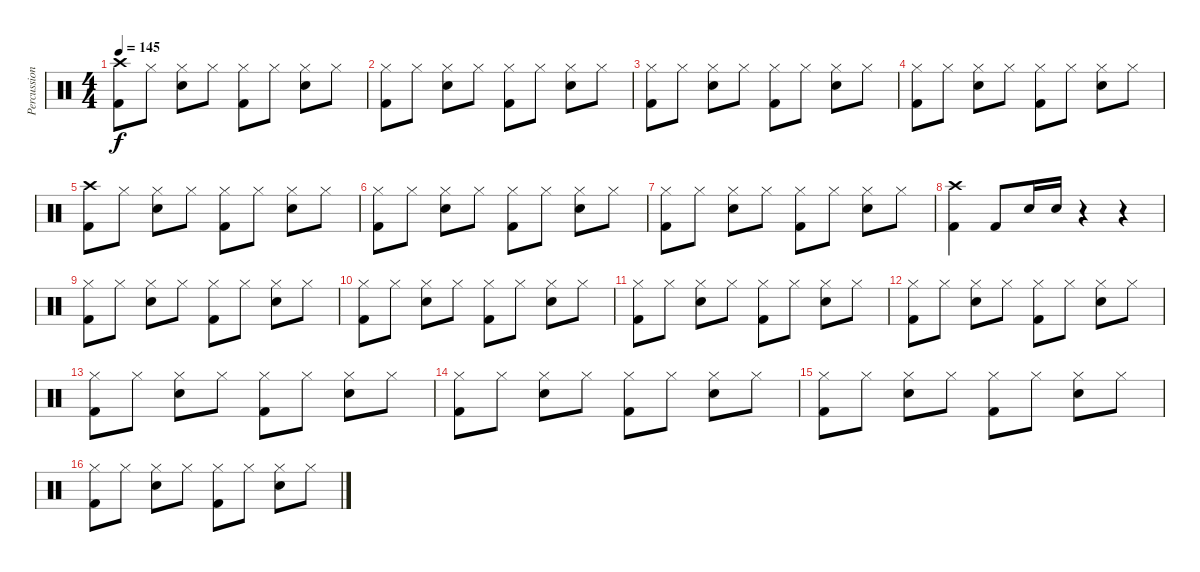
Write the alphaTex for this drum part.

\track ("Percussion" "Percussion") {instrument percussion}
\staff {score}
\articulation defaults
\ts (4 4)
\tempo 145
\clef neutral
\ks c
("Crash high (hit)" "Kick (hit) 2").8{dy f} "Hi-Hat (closed)".8 ("Hi-Hat (closed)" "Snare (hit) 2").8 "Hi-Hat (closed)".8 ("Hi-Hat (closed)" "Kick (hit) 2").8 "Hi-Hat (closed)".8 ("Hi-Hat (closed)" "Snare (hit) 2").8 "Hi-Hat (closed)".8 |
("Hi-Hat (closed)" "Kick (hit) 2").8 "Hi-Hat (closed)".8 ("Hi-Hat (closed)" "Snare (hit) 2").8 "Hi-Hat (closed)".8 ("Hi-Hat (closed)" "Kick (hit) 2").8 "Hi-Hat (closed)".8 ("Hi-Hat (closed)" "Snare (hit) 2").8 "Hi-Hat (closed)".8 |
("Hi-Hat (closed)" "Kick (hit) 2").8 "Hi-Hat (closed)".8 ("Hi-Hat (closed)" "Snare (hit) 2").8 "Hi-Hat (closed)".8 ("Hi-Hat (closed)" "Kick (hit) 2").8 "Hi-Hat (closed)".8 ("Hi-Hat (closed)" "Snare (hit) 2").8 "Hi-Hat (closed)".8 |
("Hi-Hat (closed)" "Kick (hit) 2").8 "Hi-Hat (closed)".8 ("Hi-Hat (closed)" "Snare (hit) 2").8 "Hi-Hat (closed)".8 ("Hi-Hat (closed)" "Kick (hit) 2").8 "Hi-Hat (closed)".8 ("Hi-Hat (closed)" "Snare (hit) 2").8 "Hi-Hat (closed)".8 |
("Crash high (hit)" "Kick (hit) 2").8 "Hi-Hat (closed)".8 ("Hi-Hat (closed)" "Snare (hit) 2").8 "Hi-Hat (closed)".8 ("Hi-Hat (closed)" "Kick (hit) 2").8 "Hi-Hat (closed)".8 ("Hi-Hat (closed)" "Snare (hit) 2").8 "Hi-Hat (closed)".8 |
("Hi-Hat (closed)" "Kick (hit) 2").8 "Hi-Hat (closed)".8 ("Hi-Hat (closed)" "Snare (hit) 2").8 "Hi-Hat (closed)".8 ("Hi-Hat (closed)" "Kick (hit) 2").8 "Hi-Hat (closed)".8 ("Hi-Hat (closed)" "Snare (hit) 2").8 "Hi-Hat (closed)".8 |
("Hi-Hat (closed)" "Kick (hit) 2").8 "Hi-Hat (closed)".8 ("Hi-Hat (closed)" "Snare (hit) 2").8 "Hi-Hat (closed)".8 ("Hi-Hat (closed)" "Kick (hit) 2").8 "Hi-Hat (closed)".8 ("Hi-Hat (closed)" "Snare (hit) 2").8 "Hi-Hat (closed)".8 |
("Crash high (hit)" "Kick (hit) 2").4 "Kick (hit) 2".8 "Electric Snare (hit)".16 "Electric Snare (hit)".16 r.4 r.4 |
("Hi-Hat (closed)" "Kick (hit) 2").8 "Hi-Hat (closed)".8 ("Hi-Hat (closed)" "Snare (hit) 2").8 "Hi-Hat (closed)".8 ("Hi-Hat (closed)" "Kick (hit) 2").8 "Hi-Hat (closed)".8 ("Hi-Hat (closed)" "Snare (hit) 2").8 "Hi-Hat (closed)".8 |
("Hi-Hat (closed)" "Kick (hit) 2").8 "Hi-Hat (closed)".8 ("Hi-Hat (closed)" "Snare (hit) 2").8 "Hi-Hat (closed)".8 ("Hi-Hat (closed)" "Kick (hit) 2").8 "Hi-Hat (closed)".8 ("Hi-Hat (closed)" "Snare (hit) 2").8 "Hi-Hat (closed)".8 |
("Hi-Hat (closed)" "Kick (hit) 2").8 "Hi-Hat (closed)".8 ("Hi-Hat (closed)" "Snare (hit) 2").8 "Hi-Hat (closed)".8 ("Hi-Hat (closed)" "Kick (hit) 2").8 "Hi-Hat (closed)".8 ("Hi-Hat (closed)" "Snare (hit) 2").8 "Hi-Hat (closed)".8 |
("Hi-Hat (closed)" "Kick (hit) 2").8 "Hi-Hat (closed)".8 ("Hi-Hat (closed)" "Snare (hit) 2").8 "Hi-Hat (closed)".8 ("Hi-Hat (closed)" "Kick (hit) 2").8 "Hi-Hat (closed)".8 ("Hi-Hat (closed)" "Snare (hit) 2").8 "Hi-Hat (closed)".8 |
("Hi-Hat (closed)" "Kick (hit) 2").8 "Hi-Hat (closed)".8 ("Hi-Hat (closed)" "Snare (hit) 2").8 "Hi-Hat (closed)".8 ("Hi-Hat (closed)" "Kick (hit) 2").8 "Hi-Hat (closed)".8 ("Hi-Hat (closed)" "Snare (hit) 2").8 "Hi-Hat (closed)".8 |
("Hi-Hat (closed)" "Kick (hit) 2").8 "Hi-Hat (closed)".8 ("Hi-Hat (closed)" "Snare (hit) 2").8 "Hi-Hat (closed)".8 ("Hi-Hat (closed)" "Kick (hit) 2").8 "Hi-Hat (closed)".8 ("Hi-Hat (closed)" "Snare (hit) 2").8 "Hi-Hat (closed)".8 |
("Hi-Hat (closed)" "Kick (hit) 2").8 "Hi-Hat (closed)".8 ("Hi-Hat (closed)" "Snare (hit) 2").8 "Hi-Hat (closed)".8 ("Hi-Hat (closed)" "Kick (hit) 2").8 "Hi-Hat (closed)".8 ("Hi-Hat (closed)" "Snare (hit) 2").8 "Hi-Hat (closed)".8 |
("Hi-Hat (closed)" "Kick (hit) 2").8 "Hi-Hat (closed)".8 ("Hi-Hat (closed)" "Snare (hit) 2").8 "Hi-Hat (closed)".8 ("Hi-Hat (closed)" "Kick (hit) 2").8 "Hi-Hat (closed)".8 ("Hi-Hat (closed)" "Snare (hit) 2").8 "Hi-Hat (closed)".8
